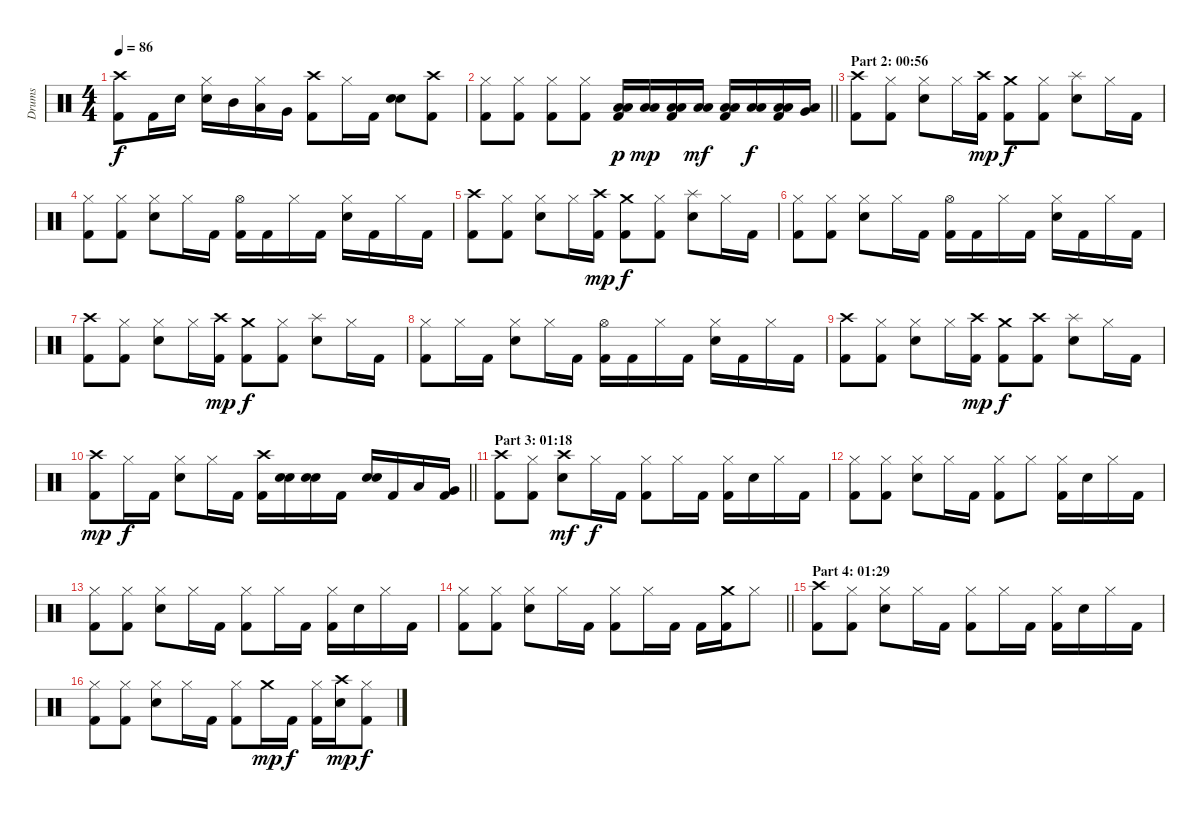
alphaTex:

\track ("Drums" "Drums") {instrument percussion}
\staff {score}
\articulation defaults
\ts (4 4)
\tempo 86
\clef neutral
\ks c
("Crash high (hit)" "Kick (hit) 2").8{dy f} "Kick (hit) 2".16 "Electric Snare (hit)".16 ("Hi-Hat (closed)" "Electric Snare (hit)").16 "Mid Tom (hit)".16 ("Hi-Hat (closed)" "Low Tom (hit)").16 "Very Low Tom (hit)".16 ("Crash high (hit)" "Kick (hit) 2").8 "Hi-Hat (closed)".16 "Kick (hit) 2".16 ("Electric Snare (hit)" "Electric Snare (hit)").8{bd 240} ("Crash high (hit)" "Kick (hit) 2").8 |
\barLineRight lightlight
("Hi-Hat (closed)" "Kick (hit) 2").8 ("Hi-Hat (closed)" "Kick (hit) 2").8 ("Hi-Hat (closed)" "Kick (hit) 2").8 ("Hi-Hat (closed)" "Kick (hit) 2").8 ("Low Tom (hit)" "Low Floor Tom (hit)" "Kick (hit) 2").16{dy p} ("Low Tom (hit)" "Low Floor Tom (hit)").16{dy mp} ("Low Tom (hit)" "Low Floor Tom (hit)" "Kick (hit) 2").16 ("Low Tom (hit)" "Low Floor Tom (hit)").16{dy mf} ("Low Tom (hit)" "Low Floor Tom (hit)" "Kick (hit) 2").16 ("Low Tom (hit)" "Low Floor Tom (hit)").16{dy f} ("Low Tom (hit)" "Low Floor Tom (hit)" "Kick (hit) 2").16 ("Very Low Tom (hit)" "Low Floor Tom (hit)").16 |
\section ("" "Part 2: 00:56")
("Crash high (hit)" "Kick (hit) 2").8 ("Hi-Hat (closed)" "Kick (hit) 2").8 ("Hi-Hat (closed)" "Electric Snare (hit)").8 "Hi-Hat (closed)".16 ("Crash high (hit)" "Kick (hit) 2").16{dy mp} ("Crash medium (hit)" "Kick (hit) 2").8{dy f} ("Hi-Hat (closed)" "Kick (hit) 2").8 ("Splash (hit)" "Electric Snare (hit)").8 "Hi-Hat (closed)".16 "Kick (hit) 2".16 |
("Hi-Hat (closed)" "Kick (hit) 2").8 ("Hi-Hat (closed)" "Kick (hit) 2").8 ("Hi-Hat (closed)" "Electric Snare (hit)").8 "Hi-Hat (closed)".16 "Kick (hit) 2".16 ("Hi-Hat (open)" "Kick (hit) 2").16 "Kick (hit) 2".16 "Hi-Hat (closed)".16 "Kick (hit) 2".16 ("Hi-Hat (closed)" "Electric Snare (hit)").16 "Kick (hit) 2".16 "Hi-Hat (closed)".16 "Kick (hit) 2".16 |
("Crash high (hit)" "Kick (hit) 2").8 ("Hi-Hat (closed)" "Kick (hit) 2").8 ("Hi-Hat (closed)" "Electric Snare (hit)").8 "Hi-Hat (closed)".16 ("Crash high (hit)" "Kick (hit) 2").16{dy mp} ("Crash medium (hit)" "Kick (hit) 2").8{dy f} ("Hi-Hat (closed)" "Kick (hit) 2").8 ("Splash (hit)" "Electric Snare (hit)").8 "Hi-Hat (closed)".16 "Kick (hit) 2".16 |
("Hi-Hat (closed)" "Kick (hit) 2").8 ("Hi-Hat (closed)" "Kick (hit) 2").8 ("Hi-Hat (closed)" "Electric Snare (hit)").8 "Hi-Hat (closed)".16 "Kick (hit) 2".16 ("Hi-Hat (open)" "Kick (hit) 2").16 "Kick (hit) 2".16 "Hi-Hat (closed)".16 "Kick (hit) 2".16 ("Hi-Hat (closed)" "Electric Snare (hit)").16 "Kick (hit) 2".16 "Hi-Hat (closed)".16 "Kick (hit) 2".16 |
("Crash high (hit)" "Kick (hit) 2").8 ("Hi-Hat (closed)" "Kick (hit) 2").8 ("Hi-Hat (closed)" "Electric Snare (hit)").8 "Hi-Hat (closed)".16 ("Crash high (hit)" "Kick (hit) 2").16{dy mp} ("Crash medium (hit)" "Kick (hit) 2").8{dy f} ("Hi-Hat (closed)" "Kick (hit) 2").8 ("Splash (hit)" "Electric Snare (hit)").8 "Hi-Hat (closed)".16 "Kick (hit) 2".16 |
("Hi-Hat (closed)" "Kick (hit) 2").8 "Hi-Hat (closed)".16 "Kick (hit) 2".16 ("Hi-Hat (closed)" "Electric Snare (hit)").8 "Hi-Hat (closed)".16 "Kick (hit) 2".16 ("Hi-Hat (open)" "Kick (hit) 2").16 "Kick (hit) 2".16 "Hi-Hat (closed)".16 "Kick (hit) 2".16 ("Hi-Hat (closed)" "Electric Snare (hit)").16 "Kick (hit) 2".16 "Hi-Hat (closed)".16 "Kick (hit) 2".16 |
("Crash high (hit)" "Kick (hit) 2").8 ("Hi-Hat (closed)" "Kick (hit) 2").8 ("Hi-Hat (closed)" "Electric Snare (hit)").8 "Hi-Hat (closed)".16 ("Crash high (hit)" "Kick (hit) 2").16{dy mp} ("Crash medium (hit)" "Kick (hit) 2").8{dy f} ("Crash high (hit)" "Kick (hit) 2").8 ("Splash (hit)" "Electric Snare (hit)").8 "Hi-Hat (closed)".16 "Kick (hit) 2".16 |
\barLineRight lightlight
("Crash high (hit)" "Kick (hit) 2").8{dy mp} "Hi-Hat (closed)".16{dy f} "Kick (hit) 2".16 ("Hi-Hat (closed)" "Electric Snare (hit)").8 "Hi-Hat (closed)".16 "Kick (hit) 2".16 ("Crash high (hit)" "Kick (hit) 2").16 ("Electric Snare (hit)" "Electric Snare (hit)").16{bd 120} ("Electric Snare (hit)" "Electric Snare (hit)").16{bd 120} "Kick (hit) 2".16 ("Electric Snare (hit)" "Electric Snare (hit)").16{bd 120} "Kick (hit) 2".16 "Low Tom (hit)".16 ("Very Low Tom (hit)" "Kick (hit) 2").16 |
\section ("" "Part 3: 01:18")
("Crash high (hit)" "Kick (hit) 2").8 ("Hi-Hat (closed)" "Kick (hit) 2").8 ("Crash high (hit)" "Electric Snare (hit)").8{dy mf} "Hi-Hat (closed)".16{dy f} "Kick (hit) 2".16 ("Hi-Hat (closed)" "Kick (hit) 2").8 "Hi-Hat (closed)".16 "Kick (hit) 2".16 ("Hi-Hat (closed)" "Kick (hit) 2").16 "Electric Snare (hit)".16 "Hi-Hat (closed)".16 "Kick (hit) 2".16 |
("Hi-Hat (closed)" "Kick (hit) 2").8 ("Hi-Hat (closed)" "Kick (hit) 2").8 ("Hi-Hat (closed)" "Electric Snare (hit)").8 "Hi-Hat (closed)".16 "Kick (hit) 2".16 ("Hi-Hat (closed)" "Kick (hit) 2").8 "Hi-Hat (closed)".8 ("Hi-Hat (closed)" "Kick (hit) 2").16 "Electric Snare (hit)".16 "Hi-Hat (closed)".16 "Kick (hit) 2".16 |
("Hi-Hat (closed)" "Kick (hit) 2").8 ("Hi-Hat (closed)" "Kick (hit) 2").8 ("Hi-Hat (closed)" "Electric Snare (hit)").8 "Hi-Hat (closed)".16 "Kick (hit) 2".16 ("Hi-Hat (closed)" "Kick (hit) 2").8 "Hi-Hat (closed)".16 "Kick (hit) 2".16 ("Hi-Hat (closed)" "Kick (hit) 2").16 "Electric Snare (hit)".16 "Hi-Hat (closed)".16 "Kick (hit) 2".16 |
\barLineRight lightlight
("Hi-Hat (closed)" "Kick (hit) 2").8 ("Hi-Hat (closed)" "Kick (hit) 2").8 ("Hi-Hat (closed)" "Electric Snare (hit)").8 "Hi-Hat (closed)".16 "Kick (hit) 2".16 ("Hi-Hat (closed)" "Kick (hit) 2").8 "Hi-Hat (closed)".16 "Kick (hit) 2".16 "Kick (hit) 2".16 ("Crash medium (hit)" "Kick (hit) 2").16 "Hi-Hat (closed)".8 |
\section ("" "Part 4: 01:29")
("Crash high (hit)" "Kick (hit) 2").8 ("Hi-Hat (closed)" "Kick (hit) 2").8 ("Hi-Hat (closed)" "Electric Snare (hit)").8 "Hi-Hat (closed)".16 "Kick (hit) 2".16 ("Hi-Hat (closed)" "Kick (hit) 2").8 "Hi-Hat (closed)".16 "Kick (hit) 2".16 ("Hi-Hat (closed)" "Kick (hit) 2").16 "Electric Snare (hit)".16 "Hi-Hat (closed)".16 "Kick (hit) 2".16 |
("Hi-Hat (closed)" "Kick (hit) 2").8 ("Hi-Hat (closed)" "Kick (hit) 2").8 ("Hi-Hat (closed)" "Electric Snare (hit)").8 "Hi-Hat (closed)".16 "Kick (hit) 2".16 ("Hi-Hat (closed)" "Kick (hit) 2").8 "Crash medium (hit)".16{dy mp} "Kick (hit) 2".16{dy f} ("Hi-Hat (closed)" "Kick (hit) 2").16 ("Crash high (hit)" "Electric Snare (hit)").16{dy mp} ("Hi-Hat (closed)" "Kick (hit) 2").8{dy f}
